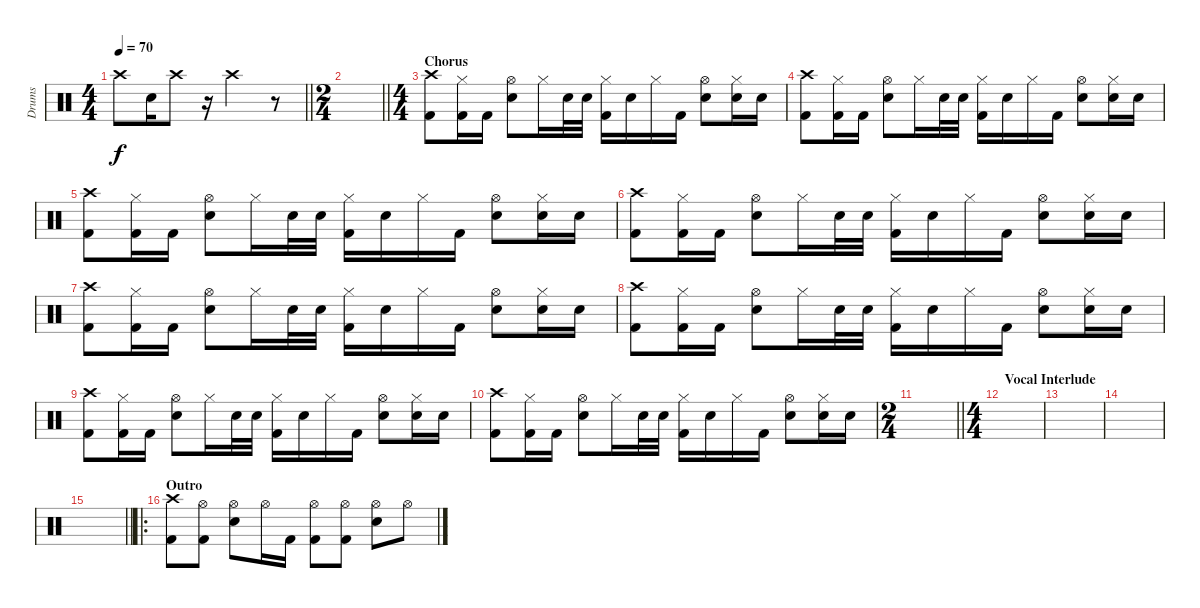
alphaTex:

\track ("Drums" "Drums") {instrument percussion bank 10}
\staff {score}
\articulation defaults
\ts (4 4)
\tempo 70
\clef neutral
\barLineRight lightlight
\ks c "Crash high (hit)".8{dy f} "Snare (hit) 2".16 "Crash high (hit)".8
r.16 "Crash high (hit)".2 r.8 |
\ts (2 4)
\barLineRight lightlight
|
\ts (4 4)
\section ("" "Chorus")
\ks aminor
("Crash high (hit)" "Kick (hit) 2").8 ("Hi-Hat (closed)" "Kick (hit) 2").16 "Kick (hit) 2".16 ("Hi-Hat (open)" "Snare (hit) 2").8 "Hi-Hat (closed)".16 "Snare (hit) 2".32 "Snare (hit) 2".32 ("Hi-Hat (closed)" "Kick (hit) 2").16 "Snare (hit) 2".16 "Hi-Hat (closed)".16 "Kick (hit) 2".16 ("Hi-Hat (open)" "Snare (hit) 2").8 ("Hi-Hat (closed)" "Snare (hit) 2").16 "Snare (hit) 2".16 |
("Crash high (hit)" "Kick (hit) 2").8 ("Hi-Hat (closed)" "Kick (hit) 2").16 "Kick (hit) 2".16 ("Hi-Hat (open)" "Snare (hit) 2").8 "Hi-Hat (closed)".16 "Snare (hit) 2".32 "Snare (hit) 2".32 ("Hi-Hat (closed)" "Kick (hit) 2").16 "Snare (hit) 2".16 "Hi-Hat (closed)".16 "Kick (hit) 2".16 ("Hi-Hat (open)" "Snare (hit) 2").8 ("Hi-Hat (closed)" "Snare (hit) 2").16 "Snare (hit) 2".16 |
("Crash high (hit)" "Kick (hit) 2").8 ("Hi-Hat (closed)" "Kick (hit) 2").16 "Kick (hit) 2".16 ("Hi-Hat (open)" "Snare (hit) 2").8 "Hi-Hat (closed)".16 "Snare (hit) 2".32 "Snare (hit) 2".32 ("Hi-Hat (closed)" "Kick (hit) 2").16 "Snare (hit) 2".16 "Hi-Hat (closed)".16 "Kick (hit) 2".16 ("Hi-Hat (open)" "Snare (hit) 2").8 ("Hi-Hat (closed)" "Snare (hit) 2").16 "Snare (hit) 2".16 |
("Crash high (hit)" "Kick (hit) 2").8 ("Hi-Hat (closed)" "Kick (hit) 2").16 "Kick (hit) 2".16 ("Hi-Hat (open)" "Snare (hit) 2").8 "Hi-Hat (closed)".16 "Snare (hit) 2".32 "Snare (hit) 2".32 ("Hi-Hat (closed)" "Kick (hit) 2").16 "Snare (hit) 2".16 "Hi-Hat (closed)".16 "Kick (hit) 2".16 ("Hi-Hat (open)" "Snare (hit) 2").8 ("Hi-Hat (closed)" "Snare (hit) 2").16 "Snare (hit) 2".16 |
("Crash high (hit)" "Kick (hit) 2").8 ("Hi-Hat (closed)" "Kick (hit) 2").16 "Kick (hit) 2".16 ("Hi-Hat (open)" "Snare (hit) 2").8 "Hi-Hat (closed)".16 "Snare (hit) 2".32 "Snare (hit) 2".32 ("Hi-Hat (closed)" "Kick (hit) 2").16 "Snare (hit) 2".16 "Hi-Hat (closed)".16 "Kick (hit) 2".16 ("Hi-Hat (open)" "Snare (hit) 2").8 ("Hi-Hat (closed)" "Snare (hit) 2").16 "Snare (hit) 2".16 |
("Crash high (hit)" "Kick (hit) 2").8 ("Hi-Hat (closed)" "Kick (hit) 2").16 "Kick (hit) 2".16 ("Hi-Hat (open)" "Snare (hit) 2").8 "Hi-Hat (closed)".16 "Snare (hit) 2".32 "Snare (hit) 2".32 ("Hi-Hat (closed)" "Kick (hit) 2").16 "Snare (hit) 2".16 "Hi-Hat (closed)".16 "Kick (hit) 2".16 ("Hi-Hat (open)" "Snare (hit) 2").8 ("Hi-Hat (closed)" "Snare (hit) 2").16 "Snare (hit) 2".16 |
("Crash high (hit)" "Kick (hit) 2").8 ("Hi-Hat (closed)" "Kick (hit) 2").16 "Kick (hit) 2".16 ("Hi-Hat (open)" "Snare (hit) 2").8 "Hi-Hat (closed)".16 "Snare (hit) 2".32 "Snare (hit) 2".32 ("Hi-Hat (closed)" "Kick (hit) 2").16 "Snare (hit) 2".16 "Hi-Hat (closed)".16 "Kick (hit) 2".16 ("Hi-Hat (open)" "Snare (hit) 2").8 ("Hi-Hat (closed)" "Snare (hit) 2").16 "Snare (hit) 2".16 |
("Crash high (hit)" "Kick (hit) 2").8 ("Hi-Hat (closed)" "Kick (hit) 2").16 "Kick (hit) 2".16 ("Hi-Hat (open)" "Snare (hit) 2").8 "Hi-Hat (closed)".16 "Snare (hit) 2".32 "Snare (hit) 2".32 ("Hi-Hat (closed)" "Kick (hit) 2").16 "Snare (hit) 2".16 "Hi-Hat (closed)".16 "Kick (hit) 2".16 ("Hi-Hat (open)" "Snare (hit) 2").8 ("Hi-Hat (closed)" "Snare (hit) 2").16 "Snare (hit) 2".16 |
\ts (2 4)
\barLineRight lightlight
\ks c
|
\ts (4 4)
\section ("" "Vocal Interlude")
|
|
|
\barLineRight lightlight
|
\ro
\section ("" "Outro")
("Crash high (hit)" "Kick (hit) 2").8 ("Hi-Hat (open)" "Kick (hit) 2").8 ("Hi-Hat (open)" "Snare (hit) 2").8 "Hi-Hat (open)".16 "Kick (hit) 2".16 ("Hi-Hat (open)" "Kick (hit) 2").8 ("Hi-Hat (open)" "Kick (hit) 2").8 ("Hi-Hat (open)" "Snare (hit) 2").8 "Hi-Hat (open)".8
